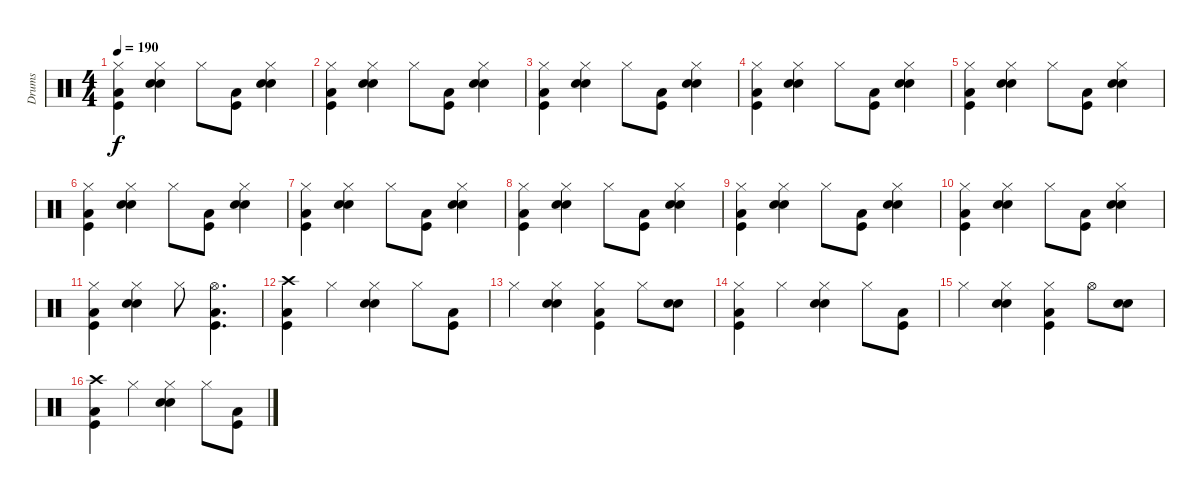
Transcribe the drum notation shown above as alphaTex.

\track ("Drums" "Drums") {instrument percussion}
\staff {score}
\articulation defaults
\ts (4 4)
\tempo 190
\clef neutral
\ks c
("Hi-Hat (closed)" "Kick (hit)" "Low Tom (hit)").4{dy f} ("Hi-Hat (closed)" "Snare (hit) 2" "Electric Snare (hit)").4 "Hi-Hat (closed)".8 ("Kick (hit)" "Low Tom (hit)").8 ("Hi-Hat (closed)" "Snare (hit) 2" "Electric Snare (hit)").4 |
("Hi-Hat (closed)" "Kick (hit)" "Low Tom (hit)").4 ("Hi-Hat (closed)" "Snare (hit) 2" "Electric Snare (hit)").4 "Hi-Hat (closed)".8 ("Kick (hit)" "Low Tom (hit)").8 ("Hi-Hat (closed)" "Snare (hit) 2" "Electric Snare (hit)").4 |
("Hi-Hat (closed)" "Kick (hit)" "Low Tom (hit)").4 ("Hi-Hat (closed)" "Snare (hit) 2" "Electric Snare (hit)").4 "Hi-Hat (closed)".8 ("Kick (hit)" "Low Tom (hit)").8 ("Hi-Hat (closed)" "Snare (hit) 2" "Electric Snare (hit)").4 |
("Hi-Hat (closed)" "Kick (hit)" "Low Tom (hit)").4 ("Hi-Hat (closed)" "Snare (hit) 2" "Electric Snare (hit)").4 "Hi-Hat (closed)".8 ("Kick (hit)" "Low Tom (hit)").8 ("Hi-Hat (closed)" "Snare (hit) 2" "Electric Snare (hit)").4 |
("Hi-Hat (closed)" "Kick (hit)" "Low Tom (hit)").4 ("Hi-Hat (closed)" "Snare (hit) 2" "Electric Snare (hit)").4 "Hi-Hat (closed)".8 ("Kick (hit)" "Low Tom (hit)").8 ("Hi-Hat (closed)" "Snare (hit) 2" "Electric Snare (hit)").4 |
("Hi-Hat (closed)" "Kick (hit)" "Low Tom (hit)").4 ("Hi-Hat (closed)" "Snare (hit) 2" "Electric Snare (hit)").4 "Hi-Hat (closed)".8 ("Kick (hit)" "Low Tom (hit)").8 ("Hi-Hat (closed)" "Snare (hit) 2" "Electric Snare (hit)").4 |
("Hi-Hat (closed)" "Kick (hit)" "Low Tom (hit)").4 ("Hi-Hat (closed)" "Snare (hit) 2" "Electric Snare (hit)").4 "Hi-Hat (closed)".8 ("Kick (hit)" "Low Tom (hit)").8 ("Hi-Hat (closed)" "Snare (hit) 2" "Electric Snare (hit)").4 |
("Hi-Hat (closed)" "Kick (hit)" "Low Tom (hit)").4 ("Hi-Hat (closed)" "Snare (hit) 2" "Electric Snare (hit)").4 "Hi-Hat (closed)".8 ("Kick (hit)" "Low Tom (hit)").8 ("Hi-Hat (closed)" "Snare (hit) 2" "Electric Snare (hit)").4 |
("Hi-Hat (closed)" "Kick (hit)" "Low Tom (hit)").4 ("Hi-Hat (closed)" "Snare (hit) 2" "Electric Snare (hit)").4 "Hi-Hat (closed)".8 ("Kick (hit)" "Low Tom (hit)").8 ("Hi-Hat (closed)" "Snare (hit) 2" "Electric Snare (hit)").4 |
("Hi-Hat (closed)" "Kick (hit)" "Low Tom (hit)").4 ("Hi-Hat (closed)" "Snare (hit) 2" "Electric Snare (hit)").4 "Hi-Hat (closed)".8 ("Kick (hit)" "Low Tom (hit)").8 ("Hi-Hat (closed)" "Snare (hit) 2" "Electric Snare (hit)").4 |
("Hi-Hat (closed)" "Kick (hit)" "Low Tom (hit)").4 ("Hi-Hat (closed)" "Snare (hit) 2" "Electric Snare (hit)").4 "Hi-Hat (closed)".8 ("Hi-Hat (open)" "Kick (hit)" "Low Tom (hit)").4{d} |
("Crash high (hit)" "Kick (hit)" "Low Tom (hit)").4 "Hi-Hat (closed)".4 ("Hi-Hat (closed)" "Snare (hit) 2" "Electric Snare (hit)").4 "Hi-Hat (closed)".8 ("Kick (hit)" "Low Tom (hit)").8 |
"Hi-Hat (closed)".4 ("Hi-Hat (closed)" "Snare (hit) 2" "Electric Snare (hit)").4 ("Hi-Hat (closed)" "Kick (hit)" "Low Tom (hit)").4 "Hi-Hat (closed)".8 ("Snare (hit) 2" "Electric Snare (hit)").8 |
("Hi-Hat (closed)" "Kick (hit)" "Low Tom (hit)").4 "Hi-Hat (closed)".4 ("Hi-Hat (closed)" "Snare (hit) 2" "Electric Snare (hit)").4 "Hi-Hat (closed)".8 ("Kick (hit)" "Low Tom (hit)").8 |
"Hi-Hat (closed)".4 ("Hi-Hat (closed)" "Snare (hit) 2" "Electric Snare (hit)").4 ("Hi-Hat (closed)" "Kick (hit)" "Low Tom (hit)").4 "Hi-Hat (open)".8 ("Snare (hit) 2" "Electric Snare (hit)").8 |
("Crash high (hit)" "Kick (hit)" "Low Tom (hit)").4 "Hi-Hat (closed)".4 ("Hi-Hat (closed)" "Snare (hit) 2" "Electric Snare (hit)").4 "Hi-Hat (closed)".8 ("Kick (hit)" "Low Tom (hit)").8
